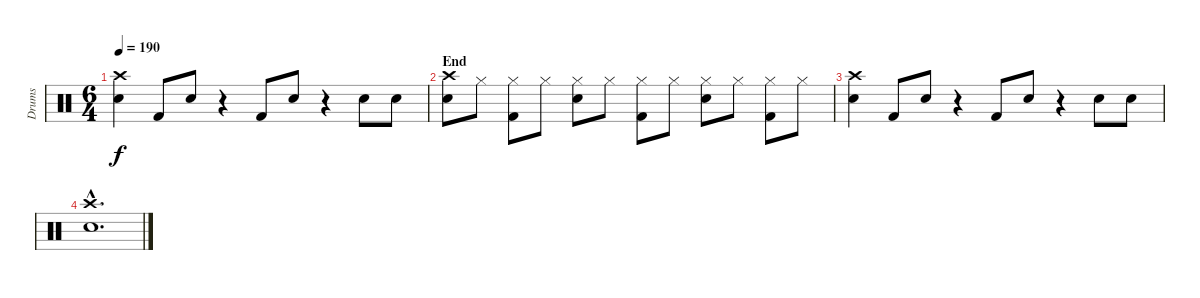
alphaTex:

\track ("Drums" "Drums") {instrument percussion}
\staff {score}
\articulation defaults
\ts (6 4)
\tempo 190
\clef neutral
\ks c
("Crash high (hit)" "Snare (hit) 2").4{dy f} "Kick (hit) 2".8 "Snare (hit) 2".8 r.4 "Kick (hit) 2".8 "Snare (hit) 2".8 r.4 "Snare (hit) 2".8 "Snare (hit) 2".8 |
\section ("" "End")
("Crash high (hit)" "Snare (hit) 2").8 "Hi-Hat (closed)".8 ("Hi-Hat (closed)" "Kick (hit) 2").8 "Hi-Hat (closed)".8 ("Hi-Hat (closed)" "Snare (hit) 2").8 "Hi-Hat (closed)".8 ("Hi-Hat (closed)" "Kick (hit) 2").8 "Hi-Hat (closed)".8 ("Hi-Hat (closed)" "Snare (hit) 2").8 "Hi-Hat (closed)".8 ("Hi-Hat (closed)" "Kick (hit) 2").8 "Hi-Hat (closed)".8 |
("Crash high (hit)" "Snare (hit) 2").4 "Kick (hit) 2".8 "Snare (hit) 2".8 r.4 "Kick (hit) 2".8 "Snare (hit) 2".8 r.4 "Snare (hit) 2".8 "Snare (hit) 2".8 |
("Crash high (hit)"{hac} "Snare (hit) 2"{hac}).1{d}
